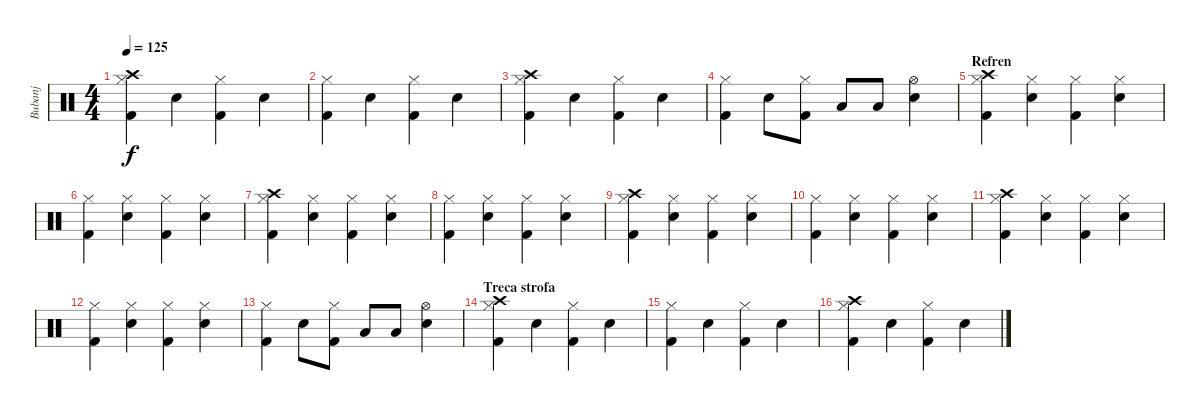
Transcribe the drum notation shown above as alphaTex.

\track ("Bubanj" "Bubanj") {instrument percussion}
\staff {score}
\articulation defaults
\ts (4 4)
\tempo 125
\clef neutral
\ks c
("Crash high (hit)" "Hi-Hat (closed)" "Kick (hit) 2").4{dy f} "Electric Snare (hit)".4 ("Hi-Hat (closed)" "Kick (hit) 2").4 "Electric Snare (hit)".4 |
("Hi-Hat (closed)" "Kick (hit) 2").4 "Electric Snare (hit)".4 ("Hi-Hat (closed)" "Kick (hit) 2").4 "Electric Snare (hit)".4 |
("Crash high (hit)" "Hi-Hat (closed)" "Kick (hit) 2").4 "Electric Snare (hit)".4 ("Hi-Hat (closed)" "Kick (hit) 2").4 "Electric Snare (hit)".4 |
("Hi-Hat (closed)" "Kick (hit) 2").4 "Electric Snare (hit)".8 ("Hi-Hat (closed)" "Kick (hit) 2").8 "Low Tom (hit)".8 "Low Floor Tom (hit)".8 ("Hi-Hat (open)" "Electric Snare (hit)").4 |
\section ("" "Refren")
("Crash high (hit)" "Hi-Hat (closed)" "Kick (hit) 2").4 ("Electric Snare (hit)" "Hi-Hat (closed)").4 ("Hi-Hat (closed)" "Kick (hit) 2").4 ("Electric Snare (hit)" "Hi-Hat (closed)").4 |
("Hi-Hat (closed)" "Kick (hit) 2").4 ("Electric Snare (hit)" "Hi-Hat (closed)").4 ("Hi-Hat (closed)" "Kick (hit) 2").4 ("Electric Snare (hit)" "Hi-Hat (closed)").4 |
("Crash high (hit)" "Hi-Hat (closed)" "Kick (hit) 2").4 ("Electric Snare (hit)" "Hi-Hat (closed)").4 ("Hi-Hat (closed)" "Kick (hit) 2").4 ("Electric Snare (hit)" "Hi-Hat (closed)").4 |
("Hi-Hat (closed)" "Kick (hit) 2").4 ("Electric Snare (hit)" "Hi-Hat (closed)").4 ("Hi-Hat (closed)" "Kick (hit) 2").4 ("Electric Snare (hit)" "Hi-Hat (closed)").4 |
("Crash high (hit)" "Hi-Hat (closed)" "Kick (hit) 2").4 ("Electric Snare (hit)" "Hi-Hat (closed)").4 ("Hi-Hat (closed)" "Kick (hit) 2").4 ("Electric Snare (hit)" "Hi-Hat (closed)").4 |
("Hi-Hat (closed)" "Kick (hit) 2").4 ("Electric Snare (hit)" "Hi-Hat (closed)").4 ("Hi-Hat (closed)" "Kick (hit) 2").4 ("Electric Snare (hit)" "Hi-Hat (closed)").4 |
("Crash high (hit)" "Hi-Hat (closed)" "Kick (hit) 2").4 ("Electric Snare (hit)" "Hi-Hat (closed)").4 ("Hi-Hat (closed)" "Kick (hit) 2").4 ("Electric Snare (hit)" "Hi-Hat (closed)").4 |
("Hi-Hat (closed)" "Kick (hit) 2").4 ("Electric Snare (hit)" "Hi-Hat (closed)").4 ("Hi-Hat (closed)" "Kick (hit) 2").4 ("Electric Snare (hit)" "Hi-Hat (closed)").4 |
("Hi-Hat (closed)" "Kick (hit) 2").4 "Electric Snare (hit)".8 ("Hi-Hat (closed)" "Kick (hit) 2").8 "Low Tom (hit)".8 "Low Floor Tom (hit)".8 ("Hi-Hat (open)" "Electric Snare (hit)").4 |
\section ("" "Treca strofa")
("Crash high (hit)" "Hi-Hat (closed)" "Kick (hit) 2").4 "Electric Snare (hit)".4 ("Hi-Hat (closed)" "Kick (hit) 2").4 "Electric Snare (hit)".4 |
("Hi-Hat (closed)" "Kick (hit) 2").4 "Electric Snare (hit)".4 ("Hi-Hat (closed)" "Kick (hit) 2").4 "Electric Snare (hit)".4 |
("Crash high (hit)" "Hi-Hat (closed)" "Kick (hit) 2").4 "Electric Snare (hit)".4 ("Hi-Hat (closed)" "Kick (hit) 2").4 "Electric Snare (hit)".4
